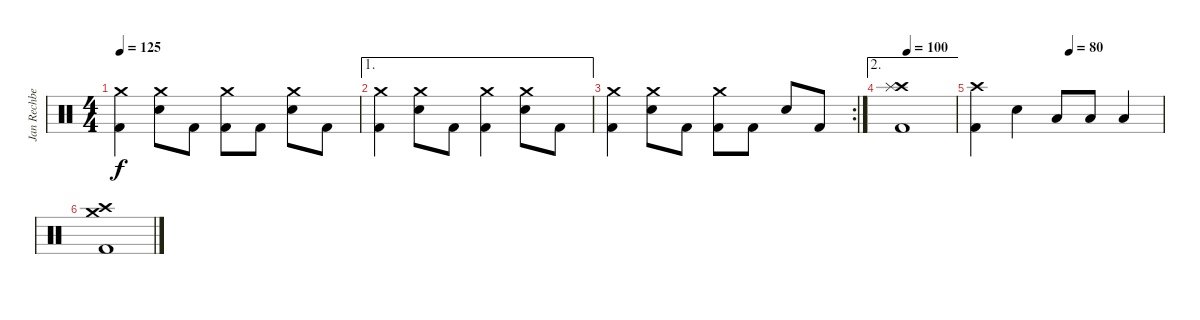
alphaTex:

\track ("Jan Rechberger" "Jan Rechbe") {instrument percussion}
\staff {score}
\articulation defaults
\ts (4 4)
\tempo 125
\clef neutral
\ks c
("Crash medium (hit)" "Kick (hit) 2").4{dy f} ("Crash medium (hit)" "Electric Snare (hit)").8 "Kick (hit) 2".8 ("Crash medium (hit)" "Kick (hit) 2").8 "Kick (hit) 2".8 ("Crash medium (hit)" "Electric Snare (hit)").8 "Kick (hit) 2".8 |
\ae 1
("Crash medium (hit)" "Kick (hit) 2").4 ("Crash medium (hit)" "Electric Snare (hit)").8 "Kick (hit) 2".8 ("Crash medium (hit)" "Kick (hit) 2").4 ("Crash medium (hit)" "Electric Snare (hit)").8 "Kick (hit) 2".8 |
\rc 2
("Crash medium (hit)" "Kick (hit) 2").4 ("Crash medium (hit)" "Electric Snare (hit)").8 "Kick (hit) 2".8 ("Crash medium (hit)" "Kick (hit) 2").8 "Kick (hit) 2".8 "Electric Snare (hit)".8 "Kick (hit) 2".8 |
\ae 2
\tempo (100 0.25)
("Crash high (hit)" "Splash (hit)" "Kick (hit) 2").1 |
\tempo (80 0.5)
("Crash high (hit)" "Kick (hit) 2").4 "Electric Snare (hit)".4 "Low Tom (hit)".8 "Low Tom (hit)".8 "Low Tom (hit)".4 |
("Crash high (hit)" "Crash medium (hit)" "Kick (hit) 2").1
